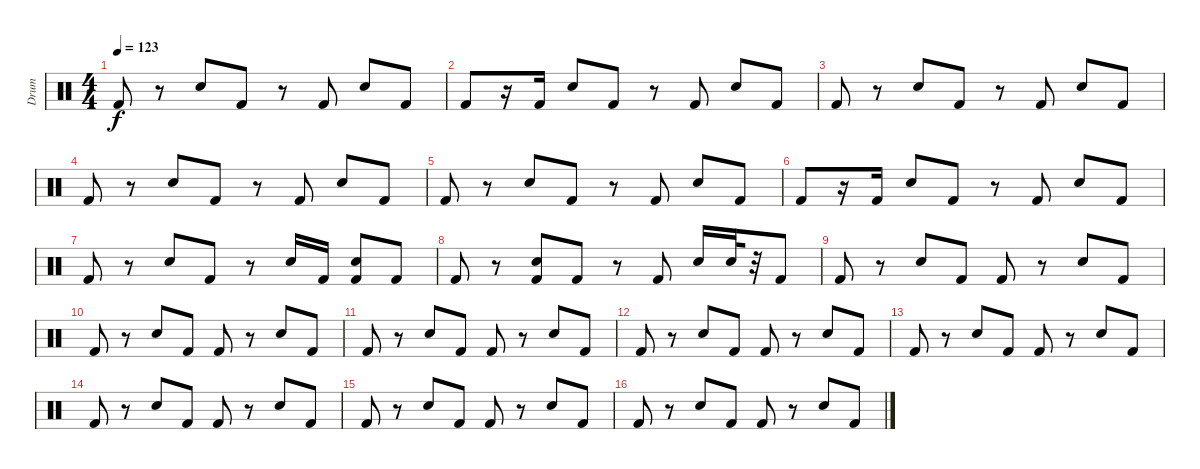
\track ("Drum" "Drum") {instrument percussion}
\staff {score}
\articulation defaults
\ts (4 4)
\tempo 123
\clef neutral
\ks c "Kick (hit) 2".8{dy f}
r.8 "Electric Snare (hit)".8 "Kick (hit) 2".8 r.8 "Kick (hit) 2".8 "Electric Snare (hit)".8 "Kick (hit) 2".8 |
"Kick (hit) 2".8 r.16 "Kick (hit) 2".16 "Electric Snare (hit)".8 "Kick (hit) 2".8 r.8 "Kick (hit) 2".8 "Electric Snare (hit)".8 "Kick (hit) 2".8 |
"Kick (hit) 2".8 r.8 "Electric Snare (hit)".8 "Kick (hit) 2".8 r.8 "Kick (hit) 2".8 "Electric Snare (hit)".8 "Kick (hit) 2".8 |
"Kick (hit) 2".8 r.8 "Electric Snare (hit)".8 "Kick (hit) 2".8 r.8 "Kick (hit) 2".8 "Electric Snare (hit)".8 "Kick (hit) 2".8 |
"Kick (hit) 2".8 r.8 "Electric Snare (hit)".8 "Kick (hit) 2".8 r.8 "Kick (hit) 2".8 "Electric Snare (hit)".8 "Kick (hit) 2".8 |
"Kick (hit) 2".8 r.16 "Kick (hit) 2".16 "Electric Snare (hit)".8 "Kick (hit) 2".8 r.8 "Kick (hit) 2".8 "Electric Snare (hit)".8 "Kick (hit) 2".8 |
"Kick (hit) 2".8 r.8 "Electric Snare (hit)".8 "Kick (hit) 2".8 r.8 "Electric Snare (hit)".16 "Kick (hit) 2".16 ("Electric Snare (hit)" "Kick (hit) 2").8 "Kick (hit) 2".8 |
"Kick (hit) 2".8 r.8 ("Electric Snare (hit)" "Kick (hit) 2").8 "Kick (hit) 2".8 r.8 "Kick (hit) 2".8 "Electric Snare (hit)".16 "Electric Snare (hit)".32 r.32 "Kick (hit) 2".8 |
"Kick (hit) 2".8 r.8 "Electric Snare (hit)".8 "Kick (hit) 2".8 "Kick (hit) 2".8 r.8 "Electric Snare (hit)".8 "Kick (hit) 2".8 |
"Kick (hit) 2".8 r.8 "Electric Snare (hit)".8 "Kick (hit) 2".8 "Kick (hit) 2".8 r.8 "Electric Snare (hit)".8 "Kick (hit) 2".8 |
"Kick (hit) 2".8 r.8 "Electric Snare (hit)".8 "Kick (hit) 2".8 "Kick (hit) 2".8 r.8 "Electric Snare (hit)".8 "Kick (hit) 2".8 |
"Kick (hit) 2".8 r.8 "Electric Snare (hit)".8 "Kick (hit) 2".8 "Kick (hit) 2".8 r.8 "Electric Snare (hit)".8 "Kick (hit) 2".8 |
"Kick (hit) 2".8 r.8 "Electric Snare (hit)".8 "Kick (hit) 2".8 "Kick (hit) 2".8 r.8 "Electric Snare (hit)".8 "Kick (hit) 2".8 |
"Kick (hit) 2".8 r.8 "Electric Snare (hit)".8 "Kick (hit) 2".8 "Kick (hit) 2".8 r.8 "Electric Snare (hit)".8 "Kick (hit) 2".8 |
"Kick (hit) 2".8 r.8 "Electric Snare (hit)".8 "Kick (hit) 2".8 "Kick (hit) 2".8 r.8 "Electric Snare (hit)".8 "Kick (hit) 2".8 |
"Kick (hit) 2".8 r.8 "Electric Snare (hit)".8 "Kick (hit) 2".8 "Kick (hit) 2".8 r.8 "Electric Snare (hit)".8 "Kick (hit) 2".8
